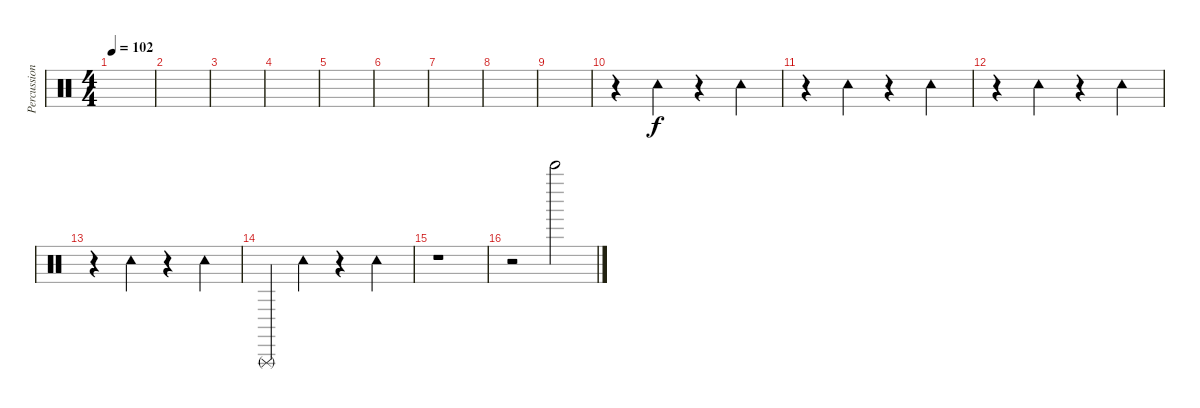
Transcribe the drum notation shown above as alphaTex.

\track ("Percussion" "Percussion") {instrument percussion}
\staff {score}
\articulation defaults
\ts (4 4)
\tempo 102
\clef neutral
\ks c
|
|
|
|
|
|
|
|
|
r.4 "Tambourine (hit)".4 r.4 "Tambourine (hit)".4 |
r.4 "Tambourine (hit)".4 r.4 "Tambourine (hit)".4 |
r.4 "Tambourine (hit)".4 r.4 "Tambourine (hit)".4 |
r.4 "Tambourine (hit)".4 r.4 "Tambourine (hit)".4 |
"Triangle (rnute)".4 "Tambourine (hit)".4 r.4 "Tambourine (hit)".4 |
r.1 |
r.2 "Bell Tree (hit)".2
